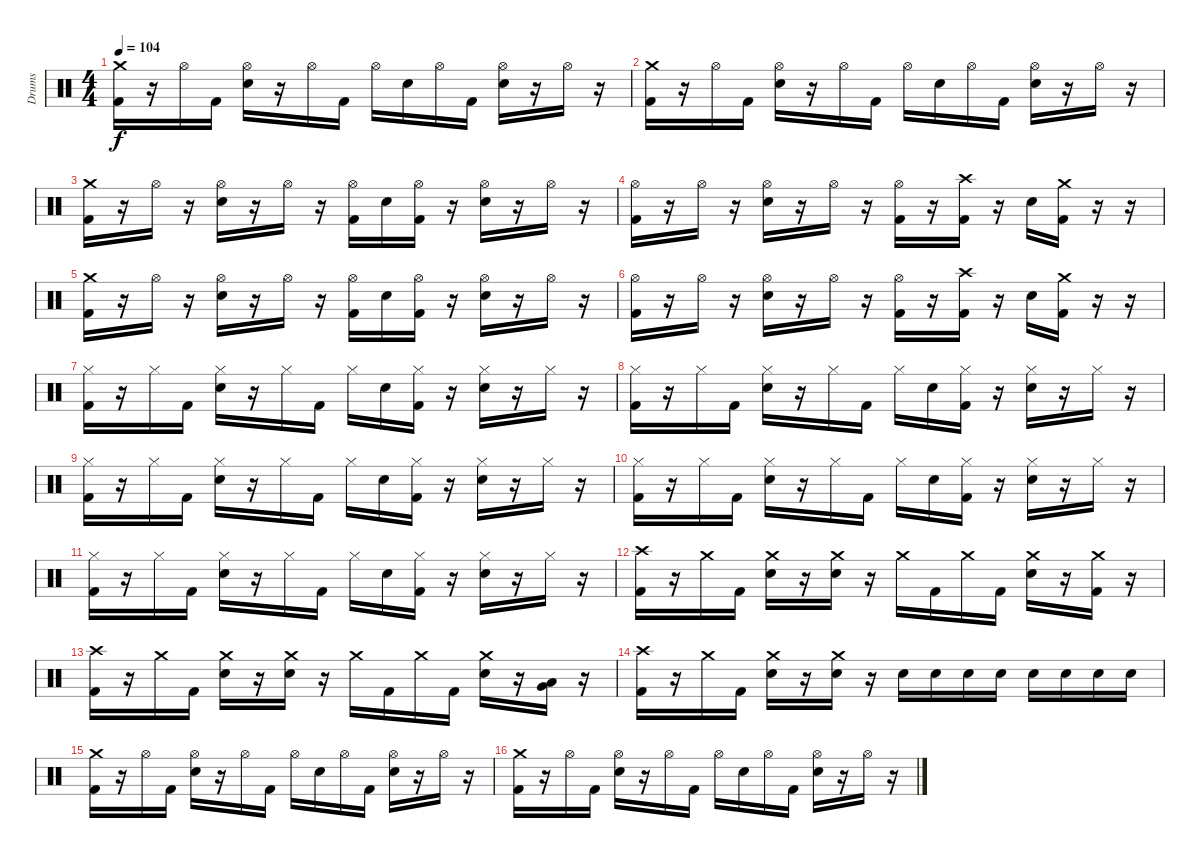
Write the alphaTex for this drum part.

\track ("Drums" "Drums") {instrument percussion}
\staff {score}
\articulation defaults
\ts (4 4)
\tempo 104
\clef neutral
\ks c
("Crash medium (hit)" "Kick (hit) 2").16{dy f} r.16 "Hi-Hat (open)".16 "Kick (hit) 2".16 ("Hi-Hat (open)" "Electric Snare (hit)").16 r.16 "Hi-Hat (open)".16 "Kick (hit) 2".16 "Hi-Hat (open)".16 "Electric Snare (hit)".16 "Hi-Hat (open)".16 "Kick (hit) 2".16 ("Hi-Hat (open)" "Electric Snare (hit)").16 r.16 "Hi-Hat (open)".16 r.16 |
("Crash medium (hit)" "Kick (hit) 2").16 r.16 "Hi-Hat (open)".16 "Kick (hit) 2".16 ("Hi-Hat (open)" "Electric Snare (hit)").16 r.16 "Hi-Hat (open)".16 "Kick (hit) 2".16 "Hi-Hat (open)".16 "Electric Snare (hit)".16 "Hi-Hat (open)".16 "Kick (hit) 2".16 ("Hi-Hat (open)" "Electric Snare (hit)").16 r.16 "Hi-Hat (open)".16 r.16 |
("Crash medium (hit)" "Kick (hit) 2").16 r.16 "Hi-Hat (open)".16 r.16 ("Hi-Hat (open)" "Electric Snare (hit)").16 r.16 "Hi-Hat (open)".16 r.16 ("Hi-Hat (open)" "Kick (hit) 2").16 "Electric Snare (hit)".16 ("Hi-Hat (open)" "Kick (hit) 2").16 r.16 ("Hi-Hat (open)" "Electric Snare (hit)").16 r.16 "Hi-Hat (open)".16 r.16 |
("Hi-Hat (open)" "Kick (hit) 2").16 r.16 "Hi-Hat (open)".16 r.16 ("Hi-Hat (open)" "Electric Snare (hit)").16 r.16 "Hi-Hat (open)".16 r.16 ("Hi-Hat (open)" "Kick (hit) 2").16 r.16 ("Crash high (hit)" "Kick (hit) 2").16 r.16 "Electric Snare (hit)".16 ("Crash medium (hit)" "Kick (hit) 2").16 r.16 r.16 |
("Crash medium (hit)" "Kick (hit) 2").16 r.16 "Hi-Hat (open)".16 r.16 ("Hi-Hat (open)" "Electric Snare (hit)").16 r.16 "Hi-Hat (open)".16 r.16 ("Hi-Hat (open)" "Kick (hit) 2").16 "Electric Snare (hit)".16 ("Hi-Hat (open)" "Kick (hit) 2").16 r.16 ("Hi-Hat (open)" "Electric Snare (hit)").16 r.16 "Hi-Hat (open)".16 r.16 |
("Hi-Hat (open)" "Kick (hit) 2").16 r.16 "Hi-Hat (open)".16 r.16 ("Hi-Hat (open)" "Electric Snare (hit)").16 r.16 "Hi-Hat (open)".16 r.16 ("Hi-Hat (open)" "Kick (hit) 2").16 r.16 ("Crash high (hit)" "Kick (hit) 2").16 r.16 "Electric Snare (hit)".16 ("Crash medium (hit)" "Kick (hit) 2").16 r.16 r.16 |
("Hi-Hat (closed)" "Kick (hit) 2").16 r.16 "Hi-Hat (closed)".16 "Kick (hit) 2".16 ("Hi-Hat (closed)" "Hand Clap (hit)").16 r.16 "Hi-Hat (closed)".16 "Kick (hit) 2".16 "Hi-Hat (closed)".16 "Hand Clap (hit)".16 ("Hi-Hat (closed)" "Kick (hit) 2").16 r.16 ("Hi-Hat (closed)" "Hand Clap (hit)").16 r.16 "Hi-Hat (closed)".16 r.16 |
("Hi-Hat (closed)" "Kick (hit) 2").16 r.16 "Hi-Hat (closed)".16 "Kick (hit) 2".16 ("Hi-Hat (closed)" "Hand Clap (hit)").16 r.16 "Hi-Hat (closed)".16 "Kick (hit) 2".16 "Hi-Hat (closed)".16 "Hand Clap (hit)".16 ("Hi-Hat (closed)" "Kick (hit) 2").16 r.16 ("Hi-Hat (closed)" "Hand Clap (hit)").16 r.16 "Hi-Hat (closed)".16 r.16 |
("Hi-Hat (closed)" "Kick (hit) 2").16 r.16 "Hi-Hat (closed)".16 "Kick (hit) 2".16 ("Hi-Hat (closed)" "Hand Clap (hit)").16 r.16 "Hi-Hat (closed)".16 "Kick (hit) 2".16 "Hi-Hat (closed)".16 "Hand Clap (hit)".16 ("Hi-Hat (closed)" "Kick (hit) 2").16 r.16 ("Hi-Hat (closed)" "Hand Clap (hit)").16 r.16 "Hi-Hat (closed)".16 r.16 |
("Hi-Hat (closed)" "Kick (hit) 2").16 r.16 "Hi-Hat (closed)".16 "Kick (hit) 2".16 ("Hi-Hat (closed)" "Hand Clap (hit)").16 r.16 "Hi-Hat (closed)".16 "Kick (hit) 2".16 "Hi-Hat (closed)".16 "Hand Clap (hit)".16 ("Hi-Hat (closed)" "Kick (hit) 2").16 r.16 ("Hi-Hat (closed)" "Hand Clap (hit)").16 r.16 "Hi-Hat (closed)".16 r.16 |
("Hi-Hat (closed)" "Kick (hit) 2").16 r.16 "Hi-Hat (closed)".16 "Kick (hit) 2".16 ("Hi-Hat (closed)" "Hand Clap (hit)").16 r.16 "Hi-Hat (closed)".16 "Kick (hit) 2".16 "Hi-Hat (closed)".16 "Hand Clap (hit)".16 ("Hi-Hat (closed)" "Kick (hit) 2").16 r.16 ("Hi-Hat (closed)" "Hand Clap (hit)").16 r.16 "Hi-Hat (closed)".16 r.16 |
("Crash high (hit)" "Kick (hit) 2").16 r.16 "Crash medium (hit)".16 "Kick (hit) 2".16 ("Crash medium (hit)" "Electric Snare (hit)").16 r.16 ("Crash medium (hit)" "Electric Snare (hit)").16 r.16 "Crash medium (hit)".16 "Kick (hit) 2".16 "Crash medium (hit)".16 "Kick (hit) 2".16 ("Crash medium (hit)" "Electric Snare (hit)").16 r.16 ("Crash medium (hit)" "Kick (hit) 2").16 r.16 |
("Crash high (hit)" "Kick (hit) 2").16 r.16 "Crash medium (hit)".16 "Kick (hit) 2".16 ("Crash medium (hit)" "Electric Snare (hit)").16 r.16 ("Crash medium (hit)" "Electric Snare (hit)").16 r.16 "Crash medium (hit)".16 "Kick (hit) 2".16 "Crash medium (hit)".16 "Kick (hit) 2".16 ("Crash medium (hit)" "Electric Snare (hit)").16 r.16 ("Low Tom (hit)" "Very Low Tom (hit)").16 r.16 |
("Crash high (hit)" "Kick (hit) 2").16 r.16 "Crash medium (hit)".16 "Kick (hit) 2".16 ("Crash medium (hit)" "Electric Snare (hit)").16 r.16 ("Crash medium (hit)" "Electric Snare (hit)").16 r.16 "Electric Snare (hit)".16 "Electric Snare (hit)".16 "Electric Snare (hit)".16 "Electric Snare (hit)".16 "Electric Snare (hit)".16 "Electric Snare (hit)".16 "Electric Snare (hit)".16 "Electric Snare (hit)".16 |
("Crash medium (hit)" "Kick (hit) 2").16 r.16 "Hi-Hat (open)".16 "Kick (hit) 2".16 ("Hi-Hat (open)" "Electric Snare (hit)").16 r.16 "Hi-Hat (open)".16 "Kick (hit) 2".16 "Hi-Hat (open)".16 "Electric Snare (hit)".16 "Hi-Hat (open)".16 "Kick (hit) 2".16 ("Hi-Hat (open)" "Electric Snare (hit)").16 r.16 "Hi-Hat (open)".16 r.16 |
("Crash medium (hit)" "Kick (hit) 2").16 r.16 "Hi-Hat (open)".16 "Kick (hit) 2".16 ("Hi-Hat (open)" "Electric Snare (hit)").16 r.16 "Hi-Hat (open)".16 "Kick (hit) 2".16 "Hi-Hat (open)".16 "Electric Snare (hit)".16 "Hi-Hat (open)".16 "Kick (hit) 2".16 ("Hi-Hat (open)" "Electric Snare (hit)").16 r.16 "Hi-Hat (open)".16 r.16
